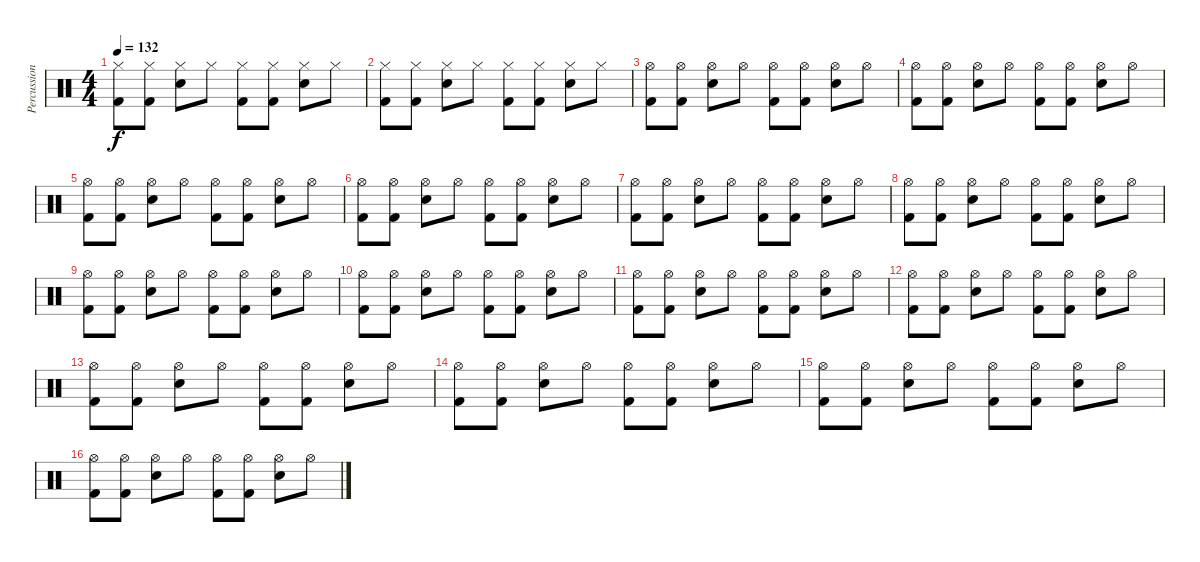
\track ("Percussion" "Percussion") {instrument percussion}
\staff {score}
\articulation defaults
\ts (4 4)
\tempo 132
\clef neutral
\ks c
("Hi-Hat (closed)" "Kick (hit) 2").8{dy f} ("Hi-Hat (closed)" "Kick (hit) 2").8 ("Hi-Hat (closed)" "Electric Snare (hit)").8 "Hi-Hat (closed)".8 ("Hi-Hat (closed)" "Kick (hit) 2").8 ("Hi-Hat (closed)" "Kick (hit) 2").8 ("Hi-Hat (closed)" "Electric Snare (hit)").8 "Hi-Hat (closed)".8 |
("Hi-Hat (closed)" "Kick (hit) 2").8 ("Hi-Hat (closed)" "Kick (hit) 2").8 ("Hi-Hat (closed)" "Electric Snare (hit)").8 "Hi-Hat (closed)".8 ("Hi-Hat (closed)" "Kick (hit) 2").8 ("Hi-Hat (closed)" "Kick (hit) 2").8 ("Hi-Hat (closed)" "Electric Snare (hit)").8 "Hi-Hat (closed)".8 |
("Hi-Hat (open)" "Kick (hit) 2").8 ("Hi-Hat (open)" "Kick (hit) 2").8 ("Hi-Hat (open)" "Electric Snare (hit)").8 "Hi-Hat (open)".8 ("Hi-Hat (open)" "Kick (hit) 2").8 ("Hi-Hat (open)" "Kick (hit) 2").8 ("Hi-Hat (open)" "Electric Snare (hit)").8 "Hi-Hat (open)".8 |
("Hi-Hat (open)" "Kick (hit) 2").8 ("Hi-Hat (open)" "Kick (hit) 2").8 ("Hi-Hat (open)" "Electric Snare (hit)").8 "Hi-Hat (open)".8 ("Hi-Hat (open)" "Kick (hit) 2").8 ("Hi-Hat (open)" "Kick (hit) 2").8 ("Hi-Hat (open)" "Electric Snare (hit)").8 "Hi-Hat (open)".8 |
("Hi-Hat (open)" "Kick (hit) 2").8 ("Hi-Hat (open)" "Kick (hit) 2").8 ("Hi-Hat (open)" "Electric Snare (hit)").8 "Hi-Hat (open)".8 ("Hi-Hat (open)" "Kick (hit) 2").8 ("Hi-Hat (open)" "Kick (hit) 2").8 ("Hi-Hat (open)" "Electric Snare (hit)").8 "Hi-Hat (open)".8 |
("Hi-Hat (open)" "Kick (hit) 2").8 ("Hi-Hat (open)" "Kick (hit) 2").8 ("Hi-Hat (open)" "Electric Snare (hit)").8 "Hi-Hat (open)".8 ("Hi-Hat (open)" "Kick (hit) 2").8 ("Hi-Hat (open)" "Kick (hit) 2").8 ("Hi-Hat (open)" "Electric Snare (hit)").8 "Hi-Hat (open)".8 |
("Hi-Hat (open)" "Kick (hit) 2").8 ("Hi-Hat (open)" "Kick (hit) 2").8 ("Hi-Hat (open)" "Electric Snare (hit)").8 "Hi-Hat (open)".8 ("Hi-Hat (open)" "Kick (hit) 2").8 ("Hi-Hat (open)" "Kick (hit) 2").8 ("Hi-Hat (open)" "Electric Snare (hit)").8 "Hi-Hat (open)".8 |
("Hi-Hat (open)" "Kick (hit) 2").8 ("Hi-Hat (open)" "Kick (hit) 2").8 ("Hi-Hat (open)" "Electric Snare (hit)").8 "Hi-Hat (open)".8 ("Hi-Hat (open)" "Kick (hit) 2").8 ("Hi-Hat (open)" "Kick (hit) 2").8 ("Hi-Hat (open)" "Electric Snare (hit)").8 "Hi-Hat (open)".8 |
("Hi-Hat (open)" "Kick (hit) 2").8 ("Hi-Hat (open)" "Kick (hit) 2").8 ("Hi-Hat (open)" "Electric Snare (hit)").8 "Hi-Hat (open)".8 ("Hi-Hat (open)" "Kick (hit) 2").8 ("Hi-Hat (open)" "Kick (hit) 2").8 ("Hi-Hat (open)" "Electric Snare (hit)").8 "Hi-Hat (open)".8 |
("Hi-Hat (open)" "Kick (hit) 2").8 ("Hi-Hat (open)" "Kick (hit) 2").8 ("Hi-Hat (open)" "Electric Snare (hit)").8 "Hi-Hat (open)".8 ("Hi-Hat (open)" "Kick (hit) 2").8 ("Hi-Hat (open)" "Kick (hit) 2").8 ("Hi-Hat (open)" "Electric Snare (hit)").8 "Hi-Hat (open)".8 |
("Hi-Hat (open)" "Kick (hit) 2").8 ("Hi-Hat (open)" "Kick (hit) 2").8 ("Hi-Hat (open)" "Electric Snare (hit)").8 "Hi-Hat (open)".8 ("Hi-Hat (open)" "Kick (hit) 2").8 ("Hi-Hat (open)" "Kick (hit) 2").8 ("Hi-Hat (open)" "Electric Snare (hit)").8 "Hi-Hat (open)".8 |
("Hi-Hat (open)" "Kick (hit) 2").8 ("Hi-Hat (open)" "Kick (hit) 2").8 ("Hi-Hat (open)" "Electric Snare (hit)").8 "Hi-Hat (open)".8 ("Hi-Hat (open)" "Kick (hit) 2").8 ("Hi-Hat (open)" "Kick (hit) 2").8 ("Hi-Hat (open)" "Electric Snare (hit)").8 "Hi-Hat (open)".8 |
("Hi-Hat (open)" "Kick (hit) 2").8 ("Hi-Hat (open)" "Kick (hit) 2").8 ("Hi-Hat (open)" "Electric Snare (hit)").8 "Hi-Hat (open)".8 ("Hi-Hat (open)" "Kick (hit) 2").8 ("Hi-Hat (open)" "Kick (hit) 2").8 ("Hi-Hat (open)" "Electric Snare (hit)").8 "Hi-Hat (open)".8 |
("Hi-Hat (open)" "Kick (hit) 2").8 ("Hi-Hat (open)" "Kick (hit) 2").8 ("Hi-Hat (open)" "Electric Snare (hit)").8 "Hi-Hat (open)".8 ("Hi-Hat (open)" "Kick (hit) 2").8 ("Hi-Hat (open)" "Kick (hit) 2").8 ("Hi-Hat (open)" "Electric Snare (hit)").8 "Hi-Hat (open)".8 |
("Hi-Hat (open)" "Kick (hit) 2").8 ("Hi-Hat (open)" "Kick (hit) 2").8 ("Hi-Hat (open)" "Electric Snare (hit)").8 "Hi-Hat (open)".8 ("Hi-Hat (open)" "Kick (hit) 2").8 ("Hi-Hat (open)" "Kick (hit) 2").8 ("Hi-Hat (open)" "Electric Snare (hit)").8 "Hi-Hat (open)".8 |
("Hi-Hat (open)" "Kick (hit) 2").8 ("Hi-Hat (open)" "Kick (hit) 2").8 ("Hi-Hat (open)" "Electric Snare (hit)").8 "Hi-Hat (open)".8 ("Hi-Hat (open)" "Kick (hit) 2").8 ("Hi-Hat (open)" "Kick (hit) 2").8 ("Hi-Hat (open)" "Electric Snare (hit)").8 "Hi-Hat (open)".8
